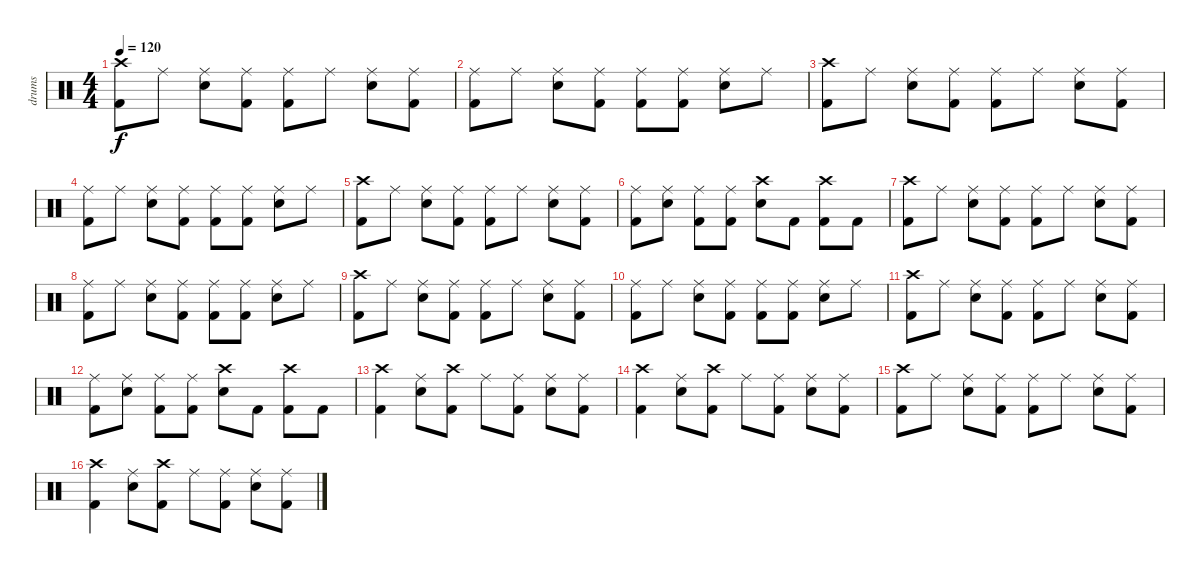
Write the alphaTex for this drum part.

\track ("drums" "drums") {instrument percussion}
\staff {score}
\articulation defaults
\ts (4 4)
\tempo 120
\clef neutral
\ks c
("Crash high (hit)" "Kick (hit) 2").8{dy f} "Ride (middle)".8 ("Ride (middle)" "Snare (hit) 2").8 ("Ride (middle)" "Kick (hit) 2").8 ("Ride (middle)" "Kick (hit) 2").8 "Ride (middle)".8 ("Ride (middle)" "Snare (hit) 2").8 ("Ride (middle)" "Kick (hit) 2").8 |
("Ride (middle)" "Kick (hit) 2").8 "Ride (middle)".8 ("Ride (middle)" "Snare (hit) 2").8 ("Ride (middle)" "Kick (hit) 2").8 ("Ride (middle)" "Kick (hit) 2").8 ("Ride (middle)" "Kick (hit) 2").8 ("Ride (middle)" "Snare (hit) 2").8 "Ride (middle)".8 |
("Crash high (hit)" "Kick (hit) 2").8 "Ride (middle)".8 ("Ride (middle)" "Snare (hit) 2").8 ("Ride (middle)" "Kick (hit) 2").8 ("Ride (middle)" "Kick (hit) 2").8 "Ride (middle)".8 ("Ride (middle)" "Snare (hit) 2").8 ("Ride (middle)" "Kick (hit) 2").8 |
("Ride (middle)" "Kick (hit) 2").8 "Ride (middle)".8 ("Ride (middle)" "Snare (hit) 2").8 ("Ride (middle)" "Kick (hit) 2").8 ("Ride (middle)" "Kick (hit) 2").8 ("Ride (middle)" "Kick (hit) 2").8 ("Ride (middle)" "Snare (hit) 2").8 "Ride (middle)".8 |
("Crash high (hit)" "Kick (hit) 2").8 "Ride (middle)".8 ("Ride (middle)" "Snare (hit) 2").8 ("Ride (middle)" "Kick (hit) 2").8 ("Ride (middle)" "Kick (hit) 2").8 "Ride (middle)".8 ("Ride (middle)" "Snare (hit) 2").8 ("Ride (middle)" "Kick (hit) 2").8 |
("Ride (middle)" "Kick (hit) 2").8 ("Ride (middle)" "Snare (hit) 2").8 ("Ride (middle)" "Kick (hit) 2").8 ("Ride (middle)" "Kick (hit) 2").8 ("Crash high (hit)" "Snare (hit) 2").8 "Kick (hit) 2".8 ("Crash high (hit)" "Kick (hit) 2").8 "Kick (hit) 2".8 |
("Crash high (hit)" "Kick (hit) 2").8 "Ride (middle)".8 ("Ride (middle)" "Snare (hit) 2").8 ("Ride (middle)" "Kick (hit) 2").8 ("Ride (middle)" "Kick (hit) 2").8 "Ride (middle)".8 ("Ride (middle)" "Snare (hit) 2").8 ("Ride (middle)" "Kick (hit) 2").8 |
("Ride (middle)" "Kick (hit) 2").8 "Ride (middle)".8 ("Ride (middle)" "Snare (hit) 2").8 ("Ride (middle)" "Kick (hit) 2").8 ("Ride (middle)" "Kick (hit) 2").8 ("Ride (middle)" "Kick (hit) 2").8 ("Ride (middle)" "Snare (hit) 2").8 "Ride (middle)".8 |
("Crash high (hit)" "Kick (hit) 2").8 "Ride (middle)".8 ("Ride (middle)" "Snare (hit) 2").8 ("Ride (middle)" "Kick (hit) 2").8 ("Ride (middle)" "Kick (hit) 2").8 "Ride (middle)".8 ("Ride (middle)" "Snare (hit) 2").8 ("Ride (middle)" "Kick (hit) 2").8 |
("Ride (middle)" "Kick (hit) 2").8 "Ride (middle)".8 ("Ride (middle)" "Snare (hit) 2").8 ("Ride (middle)" "Kick (hit) 2").8 ("Ride (middle)" "Kick (hit) 2").8 ("Ride (middle)" "Kick (hit) 2").8 ("Ride (middle)" "Snare (hit) 2").8 "Ride (middle)".8 |
("Crash high (hit)" "Kick (hit) 2").8 "Ride (middle)".8 ("Ride (middle)" "Snare (hit) 2").8 ("Ride (middle)" "Kick (hit) 2").8 ("Ride (middle)" "Kick (hit) 2").8 "Ride (middle)".8 ("Ride (middle)" "Snare (hit) 2").8 ("Ride (middle)" "Kick (hit) 2").8 |
("Ride (middle)" "Kick (hit) 2").8 ("Ride (middle)" "Snare (hit) 2").8 ("Ride (middle)" "Kick (hit) 2").8 ("Ride (middle)" "Kick (hit) 2").8 ("Crash high (hit)" "Snare (hit) 2").8 "Kick (hit) 2".8 ("Crash high (hit)" "Kick (hit) 2").8 "Kick (hit) 2".8 |
("Crash high (hit)" "Kick (hit) 2").4 ("Ride (middle)" "Snare (hit) 2").8 ("Crash high (hit)" "Kick (hit) 2").8 "Ride (middle)".8 ("Ride (middle)" "Kick (hit) 2").8 ("Ride (middle)" "Snare (hit) 2").8 ("Ride (middle)" "Kick (hit) 2").8 |
("Crash high (hit)" "Kick (hit) 2").4 ("Ride (middle)" "Snare (hit) 2").8 ("Crash high (hit)" "Kick (hit) 2").8 "Ride (middle)".8 ("Ride (middle)" "Kick (hit) 2").8 ("Ride (middle)" "Snare (hit) 2").8 ("Ride (middle)" "Kick (hit) 2").8 |
("Crash high (hit)" "Kick (hit) 2").8 "Ride (middle)".8 ("Ride (middle)" "Snare (hit) 2").8 ("Ride (middle)" "Kick (hit) 2").8 ("Ride (middle)" "Kick (hit) 2").8 "Ride (middle)".8 ("Ride (middle)" "Snare (hit) 2").8 ("Ride (middle)" "Kick (hit) 2").8 |
("Crash high (hit)" "Kick (hit) 2").4 ("Ride (middle)" "Snare (hit) 2").8 ("Crash high (hit)" "Kick (hit) 2").8 "Ride (middle)".8 ("Ride (middle)" "Kick (hit) 2").8 ("Ride (middle)" "Snare (hit) 2").8 ("Ride (middle)" "Kick (hit) 2").8
